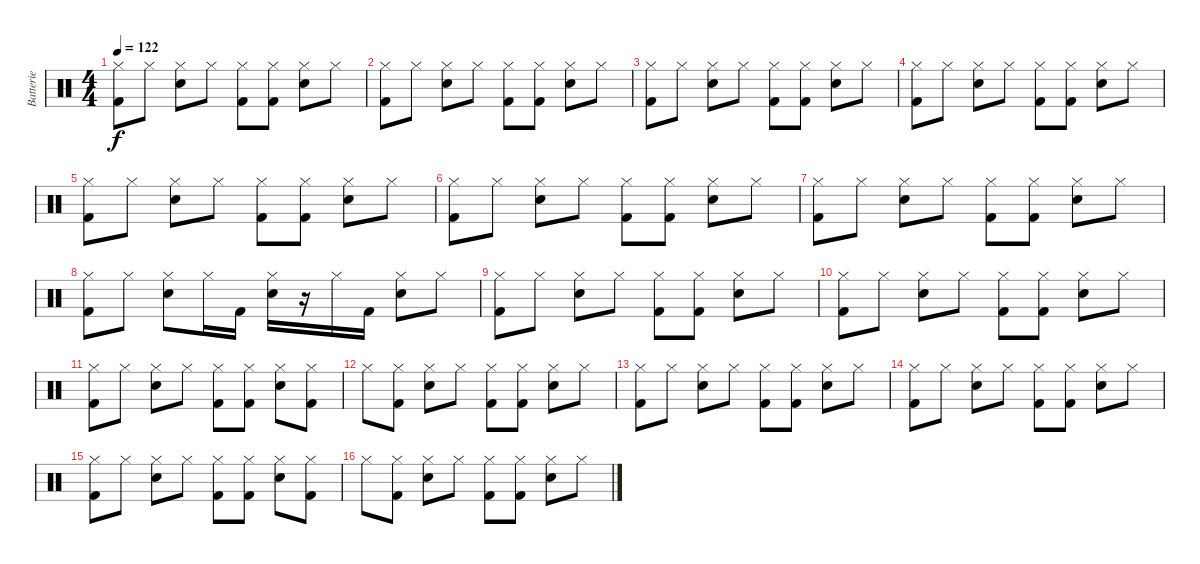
\track ("Batterie" "Batterie") {instrument percussion}
\staff {score}
\articulation defaults
\ts (4 4)
\tempo 122
\clef neutral
\ks c
("Hi-Hat (closed)" "Kick (hit) 2").8{dy f} "Hi-Hat (closed)".8 ("Hi-Hat (closed)" "Snare (hit) 2").8 "Hi-Hat (closed)".8 ("Hi-Hat (closed)" "Kick (hit) 2").8 ("Hi-Hat (closed)" "Kick (hit) 2").8 ("Hi-Hat (closed)" "Snare (hit) 2").8 "Hi-Hat (closed)".8 |
("Hi-Hat (closed)" "Kick (hit) 2").8 "Hi-Hat (closed)".8 ("Hi-Hat (closed)" "Snare (hit) 2").8 "Hi-Hat (closed)".8 ("Hi-Hat (closed)" "Kick (hit) 2").8 ("Hi-Hat (closed)" "Kick (hit) 2").8 ("Hi-Hat (closed)" "Snare (hit) 2").8 "Hi-Hat (closed)".8 |
("Hi-Hat (closed)" "Kick (hit) 2").8 "Hi-Hat (closed)".8 ("Hi-Hat (closed)" "Snare (hit) 2").8 "Hi-Hat (closed)".8 ("Hi-Hat (closed)" "Kick (hit) 2").8 ("Hi-Hat (closed)" "Kick (hit) 2").8 ("Hi-Hat (closed)" "Snare (hit) 2").8 "Hi-Hat (closed)".8 |
("Hi-Hat (closed)" "Kick (hit) 2").8 "Hi-Hat (closed)".8 ("Hi-Hat (closed)" "Snare (hit) 2").8 "Hi-Hat (closed)".8 ("Hi-Hat (closed)" "Kick (hit) 2").8 ("Hi-Hat (closed)" "Kick (hit) 2").8 ("Hi-Hat (closed)" "Snare (hit) 2").8 "Hi-Hat (closed)".8 |
("Hi-Hat (closed)" "Kick (hit) 2").8 "Hi-Hat (closed)".8 ("Hi-Hat (closed)" "Snare (hit) 2").8 "Hi-Hat (closed)".8 ("Hi-Hat (closed)" "Kick (hit) 2").8 ("Hi-Hat (closed)" "Kick (hit) 2").8 ("Hi-Hat (closed)" "Snare (hit) 2").8 "Hi-Hat (closed)".8 |
("Hi-Hat (closed)" "Kick (hit) 2").8 "Hi-Hat (closed)".8 ("Hi-Hat (closed)" "Snare (hit) 2").8 "Hi-Hat (closed)".8 ("Hi-Hat (closed)" "Kick (hit) 2").8 ("Hi-Hat (closed)" "Kick (hit) 2").8 ("Hi-Hat (closed)" "Snare (hit) 2").8 "Hi-Hat (closed)".8 |
("Hi-Hat (closed)" "Kick (hit) 2").8 "Hi-Hat (closed)".8 ("Hi-Hat (closed)" "Snare (hit) 2").8 "Hi-Hat (closed)".8 ("Hi-Hat (closed)" "Kick (hit) 2").8 ("Hi-Hat (closed)" "Kick (hit) 2").8 ("Hi-Hat (closed)" "Snare (hit) 2").8 "Hi-Hat (closed)".8 |
("Hi-Hat (closed)" "Kick (hit) 2").8 "Hi-Hat (closed)".8 ("Hi-Hat (closed)" "Snare (hit) 2").8 "Hi-Hat (closed)".16 "Kick (hit) 2".16 ("Hi-Hat (closed)" "Snare (hit) 2").16 r.16 "Hi-Hat (closed)".16 "Kick (hit) 2".16 ("Hi-Hat (closed)" "Snare (hit) 2").8 "Hi-Hat (closed)".8 |
\section ("" "")
("Hi-Hat (closed)" "Kick (hit) 2").8 "Hi-Hat (closed)".8 ("Hi-Hat (closed)" "Snare (hit) 2").8 "Hi-Hat (closed)".8 ("Hi-Hat (closed)" "Kick (hit) 2").8 ("Hi-Hat (closed)" "Kick (hit) 2").8 ("Hi-Hat (closed)" "Snare (hit) 2").8 "Hi-Hat (closed)".8 |
("Hi-Hat (closed)" "Kick (hit) 2").8 "Hi-Hat (closed)".8 ("Hi-Hat (closed)" "Snare (hit) 2").8 "Hi-Hat (closed)".8 ("Hi-Hat (closed)" "Kick (hit) 2").8 ("Hi-Hat (closed)" "Kick (hit) 2").8 ("Hi-Hat (closed)" "Snare (hit) 2").8 "Hi-Hat (closed)".8 |
("Hi-Hat (closed)" "Kick (hit) 2").8 "Hi-Hat (closed)".8 ("Hi-Hat (closed)" "Snare (hit) 2").8 "Hi-Hat (closed)".8 ("Hi-Hat (closed)" "Kick (hit) 2").8 ("Hi-Hat (closed)" "Kick (hit) 2").8 ("Hi-Hat (closed)" "Snare (hit) 2").8 ("Hi-Hat (closed)" "Kick (hit) 2").8 |
"Hi-Hat (closed)".8 ("Hi-Hat (closed)" "Kick (hit) 2").8 ("Hi-Hat (closed)" "Snare (hit) 2").8 "Hi-Hat (closed)".8 ("Hi-Hat (closed)" "Kick (hit) 2").8 ("Hi-Hat (closed)" "Kick (hit) 2").8 ("Hi-Hat (closed)" "Snare (hit) 2").8 "Hi-Hat (closed)".8 |
("Hi-Hat (closed)" "Kick (hit) 2").8 "Hi-Hat (closed)".8 ("Hi-Hat (closed)" "Snare (hit) 2").8 "Hi-Hat (closed)".8 ("Hi-Hat (closed)" "Kick (hit) 2").8 ("Hi-Hat (closed)" "Kick (hit) 2").8 ("Hi-Hat (closed)" "Snare (hit) 2").8 "Hi-Hat (closed)".8 |
("Hi-Hat (closed)" "Kick (hit) 2").8 "Hi-Hat (closed)".8 ("Hi-Hat (closed)" "Snare (hit) 2").8 "Hi-Hat (closed)".8 ("Hi-Hat (closed)" "Kick (hit) 2").8 ("Hi-Hat (closed)" "Kick (hit) 2").8 ("Hi-Hat (closed)" "Snare (hit) 2").8 "Hi-Hat (closed)".8 |
("Hi-Hat (closed)" "Kick (hit) 2").8 "Hi-Hat (closed)".8 ("Hi-Hat (closed)" "Snare (hit) 2").8 "Hi-Hat (closed)".8 ("Hi-Hat (closed)" "Kick (hit) 2").8 ("Hi-Hat (closed)" "Kick (hit) 2").8 ("Hi-Hat (closed)" "Snare (hit) 2").8 ("Hi-Hat (closed)" "Kick (hit) 2").8 |
"Hi-Hat (closed)".8 ("Hi-Hat (closed)" "Kick (hit) 2").8 ("Hi-Hat (closed)" "Snare (hit) 2").8 "Hi-Hat (closed)".8 ("Hi-Hat (closed)" "Kick (hit) 2").8 ("Hi-Hat (closed)" "Kick (hit) 2").8 ("Hi-Hat (closed)" "Snare (hit) 2").8 "Hi-Hat (closed)".8
